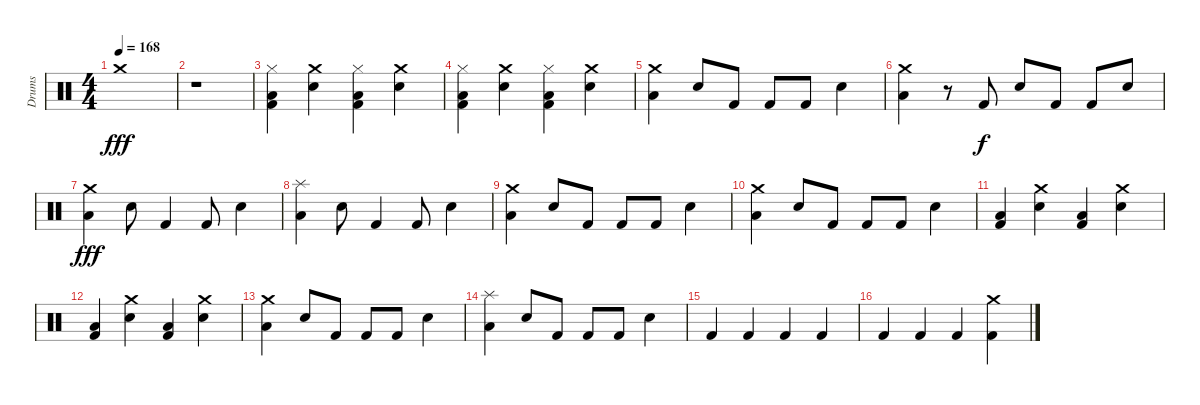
\track ("Drums" "Drums") {instrument percussion}
\staff {score}
\articulation defaults
\ts (4 4)
\tempo 168
\clef neutral
\ks c "Crash medium (hit)".1{dy fff}
|
r.1 |
("Hi-Hat (closed)" "Low Floor Tom (hit)" "Kick (hit) 2").4 ("Crash medium (hit)" "Electric Snare (hit)").4 ("Hi-Hat (closed)" "Low Floor Tom (hit)" "Kick (hit) 2").4 ("Crash medium (hit)" "Electric Snare (hit)").4 |
("Hi-Hat (closed)" "Low Floor Tom (hit)" "Kick (hit) 2").4 ("Crash medium (hit)" "Electric Snare (hit)").4 ("Hi-Hat (closed)" "Low Floor Tom (hit)" "Kick (hit) 2").4 ("Crash medium (hit)" "Electric Snare (hit)").4 |
("Low Floor Tom (hit)" "Crash medium (hit)").4 "Electric Snare (hit)".8 "Kick (hit) 2".8 "Kick (hit) 2".8 "Kick (hit) 2".8 "Electric Snare (hit)".4 |
("Low Floor Tom (hit)" "Crash medium (hit)").4 r.8 "Kick (hit) 2".8{dy f} "Electric Snare (hit)".8 "Kick (hit) 2".8 "Kick (hit) 2".8 "Electric Snare (hit)".8 |
("Low Floor Tom (hit)" "Crash medium (hit)").4{dy fff} "Electric Snare (hit)".8 "Kick (hit) 2".4 "Kick (hit) 2".8 "Electric Snare (hit)".4 |
("Low Floor Tom (hit)" "Splash (hit)").4 "Electric Snare (hit)".8 "Kick (hit) 2".4 "Kick (hit) 2".8 "Electric Snare (hit)".4 |
("Low Floor Tom (hit)" "Crash medium (hit)").4 "Electric Snare (hit)".8 "Kick (hit) 2".8 "Kick (hit) 2".8 "Kick (hit) 2".8 "Electric Snare (hit)".4 |
("Low Floor Tom (hit)" "Crash medium (hit)").4 "Electric Snare (hit)".8 "Kick (hit) 2".8 "Kick (hit) 2".8 "Kick (hit) 2".8 "Electric Snare (hit)".4 |
("Low Floor Tom (hit)" "Kick (hit) 2").4 ("Crash medium (hit)" "Electric Snare (hit)").4 ("Low Floor Tom (hit)" "Kick (hit) 2").4 ("Crash medium (hit)" "Electric Snare (hit)").4 |
("Low Floor Tom (hit)" "Kick (hit) 2").4 ("Crash medium (hit)" "Electric Snare (hit)").4 ("Low Floor Tom (hit)" "Kick (hit) 2").4 ("Crash medium (hit)" "Electric Snare (hit)").4 |
("Low Floor Tom (hit)" "Crash medium (hit)").4 "Electric Snare (hit)".8 "Kick (hit) 2".8 "Kick (hit) 2".8 "Kick (hit) 2".8 "Electric Snare (hit)".4 |
("Low Floor Tom (hit)" "Splash (hit)").4 "Electric Snare (hit)".8 "Kick (hit) 2".8 "Kick (hit) 2".8 "Kick (hit) 2".8 "Electric Snare (hit)".4 |
"Kick (hit) 2".4 "Kick (hit) 2".4 "Kick (hit) 2".4 "Kick (hit) 2".4 |
"Kick (hit) 2".4 "Kick (hit) 2".4 "Kick (hit) 2".4 ("Crash medium (hit)" "Kick (hit) 2").4
